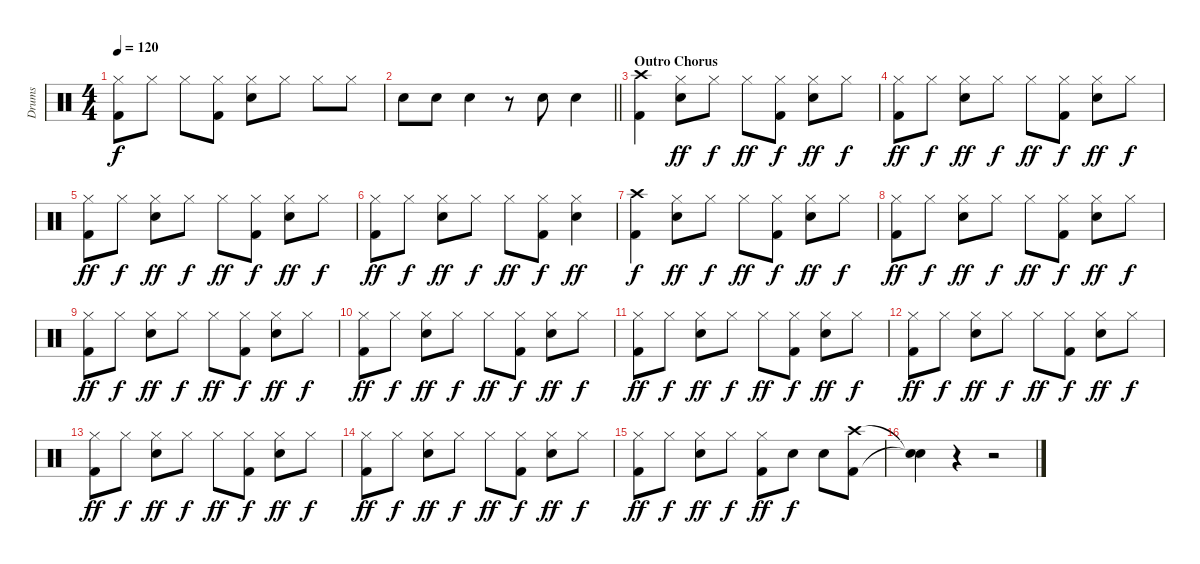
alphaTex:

\track ("Drums" "Drums") {instrument percussion}
\staff {score}
\articulation defaults
\ts (4 4)
\tempo 120
\clef neutral
\ks c
("Hi-Hat (closed)" "Kick (hit) 2").8{dy f} "Hi-Hat (closed)".8 "Hi-Hat (closed)".8 ("Hi-Hat (closed)" "Kick (hit) 2").8 ("Hi-Hat (closed)" "Electric Snare (hit)").8 "Hi-Hat (closed)".8 "Hi-Hat (closed)".8 "Hi-Hat (closed)".8 |
\barLineRight lightlight "Electric Snare (hit)".8 "Electric Snare (hit)".8 "Electric Snare (hit)".4
r.8 "Electric Snare (hit)".8 "Electric Snare (hit)".4 |
\section ("" "Outro Chorus")
("Crash high (hit)" "Kick (hit) 2").4 ("Hi-Hat (closed)" "Electric Snare (hit)").8{dy ff} "Hi-Hat (closed)".8{dy f} "Hi-Hat (closed)".8{dy ff} ("Hi-Hat (closed)" "Kick (hit) 2").8{dy f} ("Hi-Hat (closed)" "Electric Snare (hit)").8{dy ff} "Hi-Hat (closed)".8{dy f} |
("Hi-Hat (closed)" "Kick (hit) 2").8{dy ff} "Hi-Hat (closed)".8{dy f} ("Hi-Hat (closed)" "Electric Snare (hit)").8{dy ff} "Hi-Hat (closed)".8{dy f} "Hi-Hat (closed)".8{dy ff} ("Hi-Hat (closed)" "Kick (hit) 2").8{dy f} ("Hi-Hat (closed)" "Electric Snare (hit)").8{dy ff} "Hi-Hat (closed)".8{dy f} |
("Hi-Hat (closed)" "Kick (hit) 2").8{dy ff} "Hi-Hat (closed)".8{dy f} ("Hi-Hat (closed)" "Electric Snare (hit)").8{dy ff} "Hi-Hat (closed)".8{dy f} "Hi-Hat (closed)".8{dy ff} ("Hi-Hat (closed)" "Kick (hit) 2").8{dy f} ("Hi-Hat (closed)" "Electric Snare (hit)").8{dy ff} "Hi-Hat (closed)".8{dy f} |
("Hi-Hat (closed)" "Kick (hit) 2").8{dy ff} "Hi-Hat (closed)".8{dy f} ("Hi-Hat (closed)" "Electric Snare (hit)").8{dy ff} "Hi-Hat (closed)".8{dy f} "Hi-Hat (closed)".8{dy ff} ("Hi-Hat (closed)" "Kick (hit) 2").8{dy f} ("Hi-Hat (closed)" "Electric Snare (hit)").4{dy ff} |
("Crash high (hit)" "Kick (hit) 2").4{dy f} ("Hi-Hat (closed)" "Electric Snare (hit)").8{dy ff} "Hi-Hat (closed)".8{dy f} "Hi-Hat (closed)".8{dy ff} ("Hi-Hat (closed)" "Kick (hit) 2").8{dy f} ("Hi-Hat (closed)" "Electric Snare (hit)").8{dy ff} "Hi-Hat (closed)".8{dy f} |
("Hi-Hat (closed)" "Kick (hit) 2").8{dy ff} "Hi-Hat (closed)".8{dy f} ("Hi-Hat (closed)" "Electric Snare (hit)").8{dy ff} "Hi-Hat (closed)".8{dy f} "Hi-Hat (closed)".8{dy ff} ("Hi-Hat (closed)" "Kick (hit) 2").8{dy f} ("Hi-Hat (closed)" "Electric Snare (hit)").8{dy ff} "Hi-Hat (closed)".8{dy f} |
("Hi-Hat (closed)" "Kick (hit) 2").8{dy ff} "Hi-Hat (closed)".8{dy f} ("Hi-Hat (closed)" "Electric Snare (hit)").8{dy ff} "Hi-Hat (closed)".8{dy f} "Hi-Hat (closed)".8{dy ff} ("Hi-Hat (closed)" "Kick (hit) 2").8{dy f} ("Hi-Hat (closed)" "Electric Snare (hit)").8{dy ff} "Hi-Hat (closed)".8{dy f} |
("Hi-Hat (closed)" "Kick (hit) 2").8{dy ff} "Hi-Hat (closed)".8{dy f} ("Hi-Hat (closed)" "Electric Snare (hit)").8{dy ff} "Hi-Hat (closed)".8{dy f} "Hi-Hat (closed)".8{dy ff} ("Hi-Hat (closed)" "Kick (hit) 2").8{dy f} ("Hi-Hat (closed)" "Electric Snare (hit)").8{dy ff} "Hi-Hat (closed)".8{dy f} |
("Hi-Hat (closed)" "Kick (hit) 2").8{dy ff} "Hi-Hat (closed)".8{dy f} ("Hi-Hat (closed)" "Electric Snare (hit)").8{dy ff} "Hi-Hat (closed)".8{dy f} "Hi-Hat (closed)".8{dy ff} ("Hi-Hat (closed)" "Kick (hit) 2").8{dy f} ("Hi-Hat (closed)" "Electric Snare (hit)").8{dy ff} "Hi-Hat (closed)".8{dy f} |
("Hi-Hat (closed)" "Kick (hit) 2").8{dy ff} "Hi-Hat (closed)".8{dy f} ("Hi-Hat (closed)" "Electric Snare (hit)").8{dy ff} "Hi-Hat (closed)".8{dy f} "Hi-Hat (closed)".8{dy ff} ("Hi-Hat (closed)" "Kick (hit) 2").8{dy f} ("Hi-Hat (closed)" "Electric Snare (hit)").8{dy ff} "Hi-Hat (closed)".8{dy f} |
("Hi-Hat (closed)" "Kick (hit) 2").8{dy ff} "Hi-Hat (closed)".8{dy f} ("Hi-Hat (closed)" "Electric Snare (hit)").8{dy ff} "Hi-Hat (closed)".8{dy f} "Hi-Hat (closed)".8{dy ff} ("Hi-Hat (closed)" "Kick (hit) 2").8{dy f} ("Hi-Hat (closed)" "Electric Snare (hit)").8{dy ff} "Hi-Hat (closed)".8{dy f} |
("Hi-Hat (closed)" "Kick (hit) 2").8{dy ff} "Hi-Hat (closed)".8{dy f} ("Hi-Hat (closed)" "Electric Snare (hit)").8{dy ff} "Hi-Hat (closed)".8{dy f} "Hi-Hat (closed)".8{dy ff} ("Hi-Hat (closed)" "Kick (hit) 2").8{dy f} ("Hi-Hat (closed)" "Electric Snare (hit)").8{dy ff} "Hi-Hat (closed)".8{dy f} |
("Hi-Hat (closed)" "Kick (hit) 2").8{dy ff} "Hi-Hat (closed)".8{dy f} ("Hi-Hat (closed)" "Electric Snare (hit)").8{dy ff} "Hi-Hat (closed)".8{dy f} ("Hi-Hat (closed)" "Kick (hit) 2").8{dy ff} "Electric Snare (hit)".8{dy f} "Electric Snare (hit)".8 ("Crash high (hit)" "Kick (hit) 2").8 |
("Snare (hit)"{t} "Snare (hit)"{t}).4 r.4 r.2
